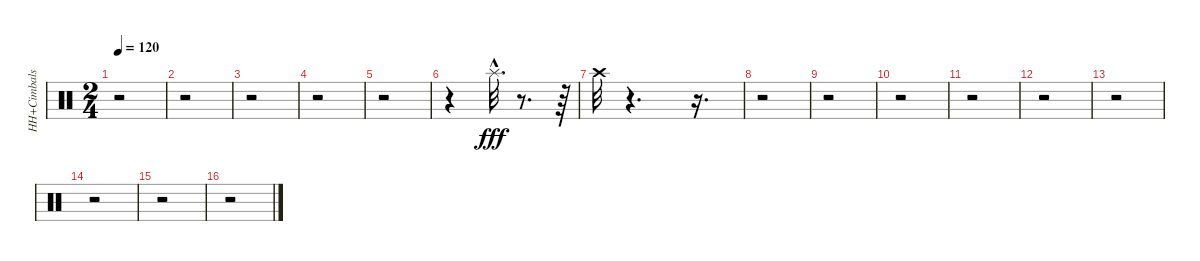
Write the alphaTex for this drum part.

\track ("HH+Cimbals" "HH+Cimbals") {instrument percussion}
\staff {score}
\articulation defaults
\ts (2 4)
\tempo 120
\clef neutral
\ks c
r.2{dy f} |
r.2 |
r.2 |
r.2 |
r.2 |
r.4 "Splash (hit)"{hac}.32{d dy fff} r.8{d} r.64 |
"Crash high (hit)".32 r.4{d} r.16{d} |
r.2 |
r.2 |
r.2 |
r.2 |
r.2 |
r.2 |
r.2 |
r.2 |
r.2
